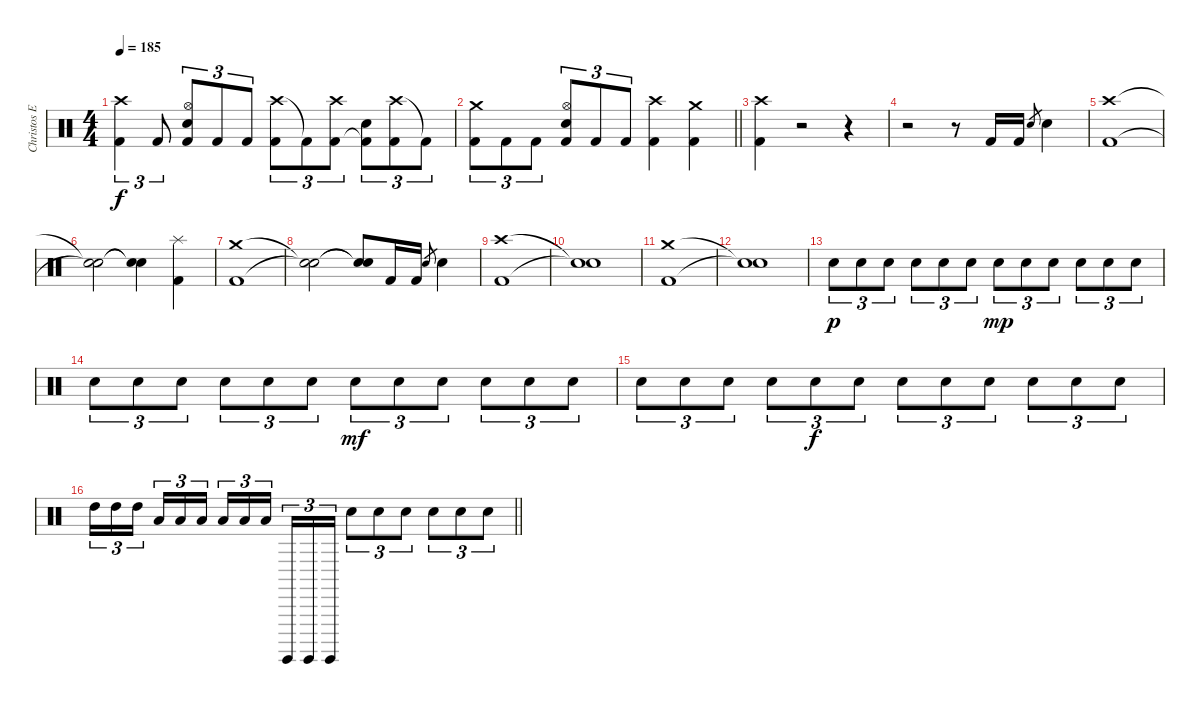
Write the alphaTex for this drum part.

\track ("Christos Ephitimiadis (drums)" "Christos E") {instrument percussion}
\staff {score}
\articulation defaults
\ts (4 4)
\tempo 185
\clef neutral
\ks c
("Crash high (hit)" "Kick (hit) 2").4{tu (3 2) dy f} "Kick (hit) 2".8{tu (3 2)} ("Hi-Hat (open)" "Snare (hit) 2" "Kick (hit) 2").8{tu (3 2)} "Kick (hit) 2".8{tu (3 2)} "Kick (hit) 2".8{tu (3 2)} ("Crash high (hit)" "Kick (hit) 2").8{tu (3 2)} "Kick (hit) 2"{t}.8{tu (3 2)} ("Crash high (hit)" "Kick (hit) 2").8{tu (3 2)} ("Snare (hit) 2" "Kick (hit) 2"{t}).8{tu (3 2)} ("Crash high (hit)" "Kick (hit) 2").8{tu (3 2)} "Kick (hit) 2"{t}.8{tu (3 2)} |
\barLineRight lightlight
("Crash medium (hit)" "Kick (hit) 2").8{tu (3 2)} "Kick (hit) 2".8{tu (3 2)} "Kick (hit) 2".8{tu (3 2)} ("Hi-Hat (open)" "Snare (hit) 2" "Kick (hit) 2").8{tu (3 2)} "Kick (hit) 2".8{tu (3 2)} "Kick (hit) 2".8{tu (3 2)} ("Crash high (hit)" "Kick (hit) 2").4 ("Crash medium (hit)" "Kick (hit) 2").4 |
\section ("" "")
("Crash high (hit)" "Kick (hit) 2").4 r.2 r.4 |
r.2 r.8 "Kick (hit) 2".16 "Kick (hit) 2".16 "Snare (hit) 2".8{gr} "Snare (hit) 2".4 |
("Crash high (hit)" "Kick (hit) 2").1 |
("Snare (hit)"{t} "Snare (hit)"{t}).2 ("Snare (hit)"{t} "Snare (hit)"{t}).4 ("Splash (hit)" "Kick (hit) 2").4 |
("Crash medium (hit)" "Kick (hit) 2").1 |
("Snare (hit)"{t} "Snare (hit)"{t}).2 ("Snare (hit)"{t} "Snare (hit)"{t}).8 "Kick (hit) 2".16 "Kick (hit) 2".16 "Snare (hit) 2".8{gr} "Snare (hit) 2".4 |
("Crash high (hit)" "Kick (hit) 2").1 |
("Snare (hit)"{t} "Snare (hit)"{t}).1 |
("Crash medium (hit)" "Kick (hit) 2").1 |
("Snare (hit)"{t} "Snare (hit)"{t}).1 |
"Snare (hit) 2".8{tu (3 2) dy p} "Snare (hit) 2".8{tu (3 2)} "Snare (hit) 2".8{tu (3 2)} "Snare (hit) 2".8{tu (3 2)} "Snare (hit) 2".8{tu (3 2)} "Snare (hit) 2".8{tu (3 2)} "Snare (hit) 2".8{tu (3 2) dy mp} "Snare (hit) 2".8{tu (3 2)} "Snare (hit) 2".8{tu (3 2)} "Snare (hit) 2".8{tu (3 2)} "Snare (hit) 2".8{tu (3 2)} "Snare (hit) 2".8{tu (3 2)} |
"Snare (hit) 2".8{tu (3 2)} "Snare (hit) 2".8{tu (3 2)} "Snare (hit) 2".8{tu (3 2)} "Snare (hit) 2".8{tu (3 2)} "Snare (hit) 2".8{tu (3 2)} "Snare (hit) 2".8{tu (3 2)} "Snare (hit) 2".8{tu (3 2) dy mf} "Snare (hit) 2".8{tu (3 2)} "Snare (hit) 2".8{tu (3 2)} "Snare (hit) 2".8{tu (3 2)} "Snare (hit) 2".8{tu (3 2)} "Snare (hit) 2".8{tu (3 2)} |
"Snare (hit) 2".8{tu (3 2)} "Snare (hit) 2".8{tu (3 2)} "Snare (hit) 2".8{tu (3 2)} "Snare (hit) 2".8{tu (3 2)} "Snare (hit) 2".8{tu (3 2) dy f} "Snare (hit) 2".8{tu (3 2)} "Snare (hit) 2".8{tu (3 2)} "Snare (hit) 2".8{tu (3 2)} "Snare (hit) 2".8{tu (3 2)} "Snare (hit) 2".8{tu (3 2)} "Snare (hit) 2".8{tu (3 2)} "Snare (hit) 2".8{tu (3 2)} |
\barLineRight lightlight "High Tom (hit)".16{tu (3 2)} "High Tom (hit)".16{tu (3 2)} "High Tom (hit)".16{tu (3 2)} "Low Tom (hit)".16{tu (3 2)} "Low Tom (hit)".16{tu (3 2)} "Low Tom (hit)".16{tu (3 2)} "Low Floor Tom (hit)".16{tu (3 2)} "Low Floor Tom (hit)".16{tu (3 2)} "Low Floor Tom (hit)".16{tu (3 2)} "Surdo (hit)".16{tu (3 2)} "Surdo (hit)".16{tu (3 2)} "Surdo (hit)".16{tu (3 2)} "Snare (hit) 2".8{tu (3 2)} "Snare (hit) 2".8{tu (3 2)} "Snare (hit) 2".8{tu (3 2)} "Snare (hit) 2".8{tu (3 2)} "Snare (hit) 2".8{tu (3 2)} "Snare (hit) 2".8{tu (3 2)}
